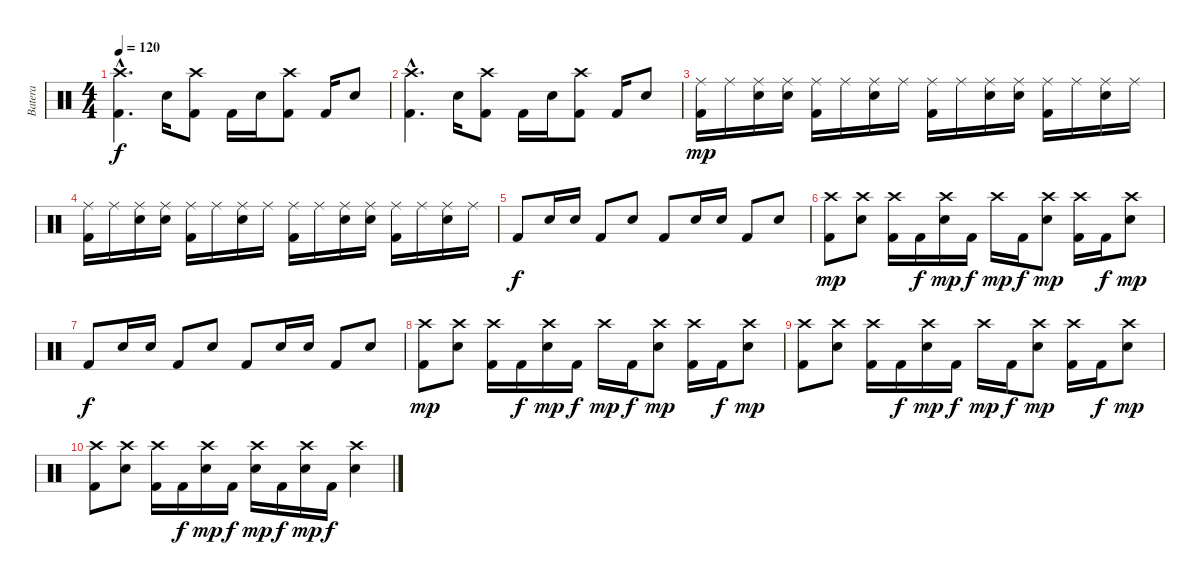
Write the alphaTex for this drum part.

\track ("Batera" "Batera") {instrument percussion}
\staff {score}
\articulation defaults
\ts (4 4)
\tempo 120
\clef neutral
\ks c
("Crash high (hit)"{hac} "Kick (hit) 2"{hac}).4{d dy f} "Snare (hit) 2".16 ("Crash high (hit)" "Kick (hit) 2").8 "Kick (hit) 2".16 "Snare (hit) 2".16 ("Crash high (hit)" "Kick (hit) 2").8 "Kick (hit) 2".16 "Snare (hit) 2".8 |
("Crash high (hit)"{hac} "Kick (hit) 2"{hac}).4{d} "Snare (hit) 2".16 ("Crash high (hit)" "Kick (hit) 2").8 "Kick (hit) 2".16 "Snare (hit) 2".16 ("Crash high (hit)" "Kick (hit) 2").8 "Kick (hit) 2".16 "Snare (hit) 2".8 |
("Ride (middle)" "Kick (hit) 2").16{dy mp} "Ride (middle)".16 ("Ride (middle)" "Snare (hit) 2").16 ("Ride (middle)" "Snare (hit) 2").16 ("Ride (middle)" "Kick (hit) 2").16 "Ride (middle)".16 ("Ride (middle)" "Snare (hit) 2").16 "Ride (middle)".16 ("Ride (middle)" "Kick (hit) 2").16 "Ride (middle)".16 ("Ride (middle)" "Snare (hit) 2").16 ("Ride (middle)" "Snare (hit) 2").16 ("Ride (middle)" "Kick (hit) 2").16 "Ride (middle)".16 ("Ride (middle)" "Snare (hit) 2").16 "Ride (middle)".16 |
("Ride (middle)" "Kick (hit) 2").16 "Ride (middle)".16 ("Ride (middle)" "Snare (hit) 2").16 ("Ride (middle)" "Snare (hit) 2").16 ("Ride (middle)" "Kick (hit) 2").16 "Ride (middle)".16 ("Ride (middle)" "Snare (hit) 2").16 "Ride (middle)".16 ("Ride (middle)" "Kick (hit) 2").16 "Ride (middle)".16 ("Ride (middle)" "Snare (hit) 2").16 ("Ride (middle)" "Snare (hit) 2").16 ("Ride (middle)" "Kick (hit) 2").16 "Ride (middle)".16 ("Ride (middle)" "Snare (hit) 2").16 "Ride (middle)".16 |
"Kick (hit) 2".8{dy f} "Snare (hit) 2".16 "Snare (hit) 2".16 "Kick (hit) 2".8 "Snare (hit) 2".8 "Kick (hit) 2".8 "Snare (hit) 2".16 "Snare (hit) 2".16 "Kick (hit) 2".8 "Snare (hit) 2".8 |
("Crash high (hit)" "Kick (hit) 2").8{dy mp} ("Crash high (hit)" "Snare (hit) 2").8 ("Crash high (hit)" "Kick (hit) 2").16 "Kick (hit) 2".16{dy f} ("Crash high (hit)" "Snare (hit) 2").16{dy mp} "Kick (hit) 2".16{dy f} "Crash high (hit)".16{dy mp} "Kick (hit) 2".16{dy f} ("Crash high (hit)" "Snare (hit) 2").8{dy mp} ("Crash high (hit)" "Kick (hit) 2").16 "Kick (hit) 2".16{dy f} ("Crash high (hit)" "Snare (hit) 2").8{dy mp} |
"Kick (hit) 2".8{dy f} "Snare (hit) 2".16 "Snare (hit) 2".16 "Kick (hit) 2".8 "Snare (hit) 2".8 "Kick (hit) 2".8 "Snare (hit) 2".16 "Snare (hit) 2".16 "Kick (hit) 2".8 "Snare (hit) 2".8 |
("Crash high (hit)" "Kick (hit) 2").8{dy mp} ("Crash high (hit)" "Snare (hit) 2").8 ("Crash high (hit)" "Kick (hit) 2").16 "Kick (hit) 2".16{dy f} ("Crash high (hit)" "Snare (hit) 2").16{dy mp} "Kick (hit) 2".16{dy f} "Crash high (hit)".16{dy mp} "Kick (hit) 2".16{dy f} ("Crash high (hit)" "Snare (hit) 2").8{dy mp} ("Crash high (hit)" "Kick (hit) 2").16 "Kick (hit) 2".16{dy f} ("Crash high (hit)" "Snare (hit) 2").8{dy mp} |
("Crash high (hit)" "Kick (hit) 2").8 ("Crash high (hit)" "Snare (hit) 2").8 ("Crash high (hit)" "Kick (hit) 2").16 "Kick (hit) 2".16{dy f} ("Crash high (hit)" "Snare (hit) 2").16{dy mp} "Kick (hit) 2".16{dy f} "Crash high (hit)".16{dy mp} "Kick (hit) 2".16{dy f} ("Crash high (hit)" "Snare (hit) 2").8{dy mp} ("Crash high (hit)" "Kick (hit) 2").16 "Kick (hit) 2".16{dy f} ("Crash high (hit)" "Snare (hit) 2").8{dy mp} |
("Crash high (hit)" "Kick (hit) 2").8 ("Crash high (hit)" "Snare (hit) 2").8 ("Crash high (hit)" "Kick (hit) 2").16 "Kick (hit) 2".16{dy f} ("Crash high (hit)" "Snare (hit) 2").16{dy mp} "Kick (hit) 2".16{dy f} ("Crash high (hit)" "Snare (hit) 2").16{dy mp} "Kick (hit) 2".16{dy f} ("Crash high (hit)" "Snare (hit) 2").16{dy mp} "Kick (hit) 2".16{dy f} ("Crash high (hit)" "Snare (hit) 2").4
